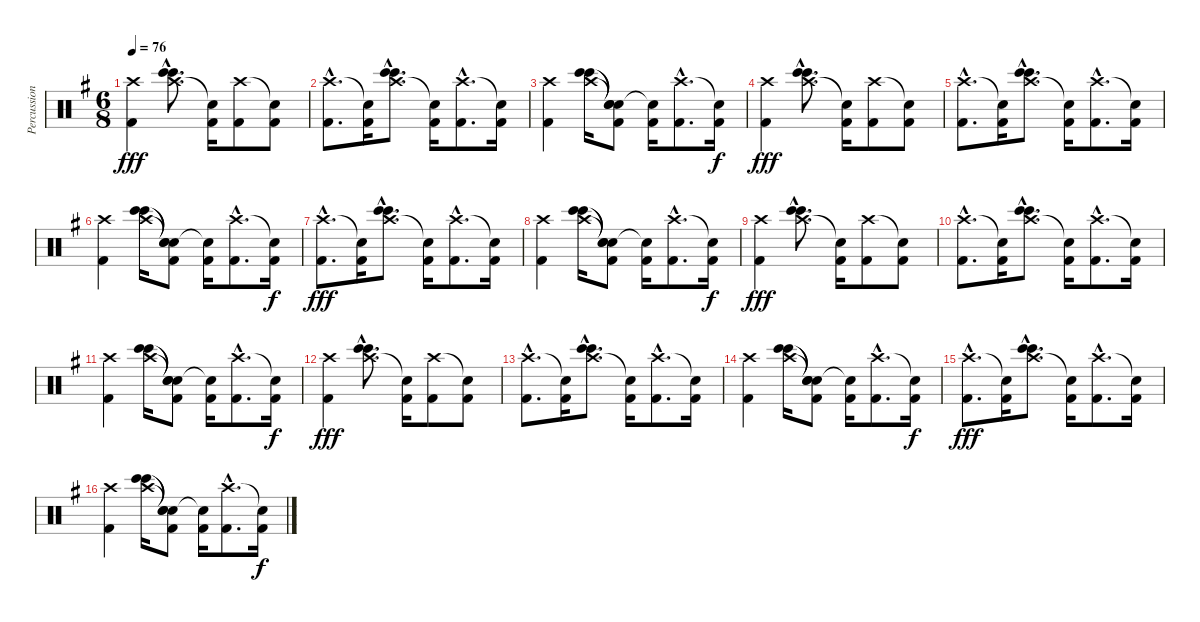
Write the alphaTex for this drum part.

\track ("Percussions 1" "Percussion") {instrument percussion}
\staff {score}
\articulation defaults
\ts (6 8)
\tempo 76
\clef neutral
\ks g
("Crash high (hit)" "Kick (hit) 2").4{dy fff} ("Crash high (hit)"{hac} "Bongo High (hit)"{hac} "Bongo High (hit)"{hac}).8{d} ("Snare (hit)"{t} "Kick (hit) 2").16 ("Crash high (hit)" "Kick (hit) 2").8 ("Snare (hit)"{t} "Kick (hit) 2").8 |
("Crash high (hit)"{hac} "Kick (hit) 2"{hac}).8{d} ("Snare (hit)"{t} "Kick (hit) 2").16 ("Crash high (hit)"{hac} "Bongo High (hit)"{hac} "Bongo High (hit)"{hac}).8{d} ("Snare (hit)"{t} "Kick (hit) 2").16 ("Crash high (hit)"{hac} "Kick (hit) 2"{hac}).8{d} ("Snare (hit)"{t} "Kick (hit) 2").16 |
("Crash high (hit)" "Kick (hit) 2").4 ("Crash high (hit)" "Bongo High (hit)" "Bongo High (hit)").16 ("Snare (hit)"{t} "Snare (hit)"{t} "Snare (hit)"{t} "Kick (hit) 2").8 ("Snare (hit)"{t} "Kick (hit) 2").16 ("Crash high (hit)"{hac} "Kick (hit) 2"{hac}).8{d} ("Snare (hit)"{t} "Kick (hit) 2").16{dy f} |
("Crash high (hit)" "Kick (hit) 2").4{dy fff} ("Crash high (hit)"{hac} "Bongo High (hit)"{hac} "Bongo High (hit)"{hac}).8{d} ("Snare (hit)"{t} "Kick (hit) 2").16 ("Crash high (hit)" "Kick (hit) 2").8 ("Snare (hit)"{t} "Kick (hit) 2").8 |
("Crash high (hit)"{hac} "Kick (hit) 2"{hac}).8{d} ("Snare (hit)"{t} "Kick (hit) 2").16 ("Crash high (hit)"{hac} "Bongo High (hit)"{hac} "Bongo High (hit)"{hac}).8{d} ("Snare (hit)"{t} "Kick (hit) 2").16 ("Crash high (hit)"{hac} "Kick (hit) 2"{hac}).8{d} ("Snare (hit)"{t} "Kick (hit) 2").16 |
("Crash high (hit)" "Kick (hit) 2").4 ("Crash high (hit)" "Bongo High (hit)" "Bongo High (hit)").16 ("Snare (hit)"{t} "Snare (hit)"{t} "Snare (hit)"{t} "Kick (hit) 2").8 ("Snare (hit)"{t} "Kick (hit) 2").16 ("Crash high (hit)"{hac} "Kick (hit) 2"{hac}).8{d} ("Snare (hit)"{t} "Kick (hit) 2").16{dy f} |
("Crash high (hit)"{hac} "Kick (hit) 2"{hac}).8{d dy fff} ("Snare (hit)"{t} "Kick (hit) 2").16 ("Crash high (hit)"{hac} "Bongo High (hit)"{hac} "Bongo High (hit)"{hac}).8{d} ("Snare (hit)"{t} "Kick (hit) 2").16 ("Crash high (hit)"{hac} "Kick (hit) 2"{hac}).8{d} ("Snare (hit)"{t} "Kick (hit) 2").16 |
("Crash high (hit)" "Kick (hit) 2").4 ("Crash high (hit)" "Bongo High (hit)" "Bongo High (hit)").16 ("Snare (hit)"{t} "Snare (hit)"{t} "Snare (hit)"{t} "Kick (hit) 2").8 ("Snare (hit)"{t} "Kick (hit) 2").16 ("Crash high (hit)"{hac} "Kick (hit) 2"{hac}).8{d} ("Snare (hit)"{t} "Kick (hit) 2").16{dy f} |
("Crash high (hit)" "Kick (hit) 2").4{dy fff} ("Crash high (hit)"{hac} "Bongo High (hit)"{hac} "Bongo High (hit)"{hac}).8{d} ("Snare (hit)"{t} "Kick (hit) 2").16 ("Crash high (hit)" "Kick (hit) 2").8 ("Snare (hit)"{t} "Kick (hit) 2").8 |
("Crash high (hit)"{hac} "Kick (hit) 2"{hac}).8{d} ("Snare (hit)"{t} "Kick (hit) 2").16 ("Crash high (hit)"{hac} "Bongo High (hit)"{hac} "Bongo High (hit)"{hac}).8{d} ("Snare (hit)"{t} "Kick (hit) 2").16 ("Crash high (hit)"{hac} "Kick (hit) 2"{hac}).8{d} ("Snare (hit)"{t} "Kick (hit) 2").16 |
("Crash high (hit)" "Kick (hit) 2").4 ("Crash high (hit)" "Bongo High (hit)" "Bongo High (hit)").16 ("Snare (hit)"{t} "Snare (hit)"{t} "Snare (hit)"{t} "Kick (hit) 2").8 ("Snare (hit)"{t} "Kick (hit) 2").16 ("Crash high (hit)"{hac} "Kick (hit) 2"{hac}).8{d} ("Snare (hit)"{t} "Kick (hit) 2").16{dy f} |
("Crash high (hit)" "Kick (hit) 2").4{dy fff} ("Crash high (hit)"{hac} "Bongo High (hit)"{hac} "Bongo High (hit)"{hac}).8{d} ("Snare (hit)"{t} "Kick (hit) 2").16 ("Crash high (hit)" "Kick (hit) 2").8 ("Snare (hit)"{t} "Kick (hit) 2").8 |
("Crash high (hit)"{hac} "Kick (hit) 2"{hac}).8{d} ("Snare (hit)"{t} "Kick (hit) 2").16 ("Crash high (hit)"{hac} "Bongo High (hit)"{hac} "Bongo High (hit)"{hac}).8{d} ("Snare (hit)"{t} "Kick (hit) 2").16 ("Crash high (hit)"{hac} "Kick (hit) 2"{hac}).8{d} ("Snare (hit)"{t} "Kick (hit) 2").16 |
("Crash high (hit)" "Kick (hit) 2").4 ("Crash high (hit)" "Bongo High (hit)" "Bongo High (hit)").16 ("Snare (hit)"{t} "Snare (hit)"{t} "Snare (hit)"{t} "Kick (hit) 2").8 ("Snare (hit)"{t} "Kick (hit) 2").16 ("Crash high (hit)"{hac} "Kick (hit) 2"{hac}).8{d} ("Snare (hit)"{t} "Kick (hit) 2").16{dy f} |
("Crash high (hit)"{hac} "Kick (hit) 2"{hac}).8{d dy fff} ("Snare (hit)"{t} "Kick (hit) 2").16 ("Crash high (hit)"{hac} "Bongo High (hit)"{hac} "Bongo High (hit)"{hac}).8{d} ("Snare (hit)"{t} "Kick (hit) 2").16 ("Crash high (hit)"{hac} "Kick (hit) 2"{hac}).8{d} ("Snare (hit)"{t} "Kick (hit) 2").16 |
("Crash high (hit)" "Kick (hit) 2").4 ("Crash high (hit)" "Bongo High (hit)" "Bongo High (hit)").16 ("Snare (hit)"{t} "Snare (hit)"{t} "Snare (hit)"{t} "Kick (hit) 2").8 ("Snare (hit)"{t} "Kick (hit) 2").16 ("Crash high (hit)"{hac} "Kick (hit) 2"{hac}).8{d} ("Snare (hit)"{t} "Kick (hit) 2").16{dy f}
